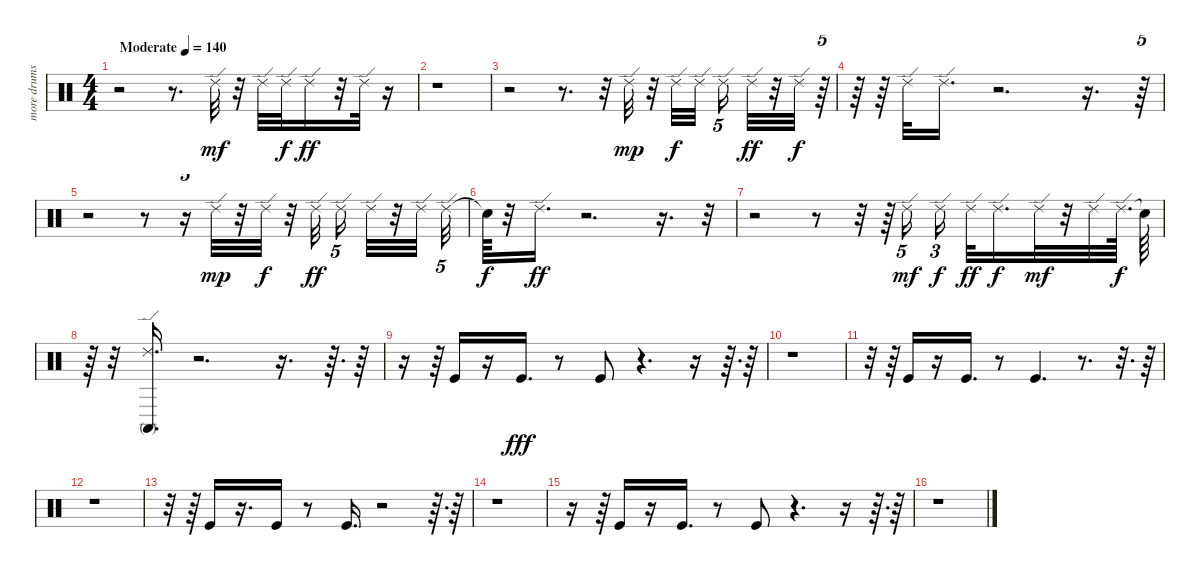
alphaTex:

\track ("more drums" "more drums") {instrument percussion}
\staff {score}
\articulation defaults
\ts (4 4)
\tempo (140 "Moderate")
\clef neutral
\ks c
r.2{dy mf} r.8{d} "Ride (edge) 2".32 r.32 "Ride (edge) 2".32 "Ride (edge) 2".32{dy f} "Ride (edge) 2".16{dy ff} r.32 "Ride (edge) 2".32 r.16 |
r.1 |
r.2 r.8{d} r.32 "Ride (edge) 2".32{dy mp} r.32 "Ride (edge) 2".32{dy f} "Ride (edge) 2".32 "Ride (edge) 2".16{tu (5 4)} "Ride (edge) 2".32{dy ff} r.32 "Ride (edge) 2".32{dy f} r.64{tu (5 4)} |
r.64 r.64 "Ride (edge) 2".32 "Ride (edge) 2".16{d} r.2{d} r.16{d} r.64{tu (5 4)} |
r.2 r.8 r.16{tu (5 4)} "Ride (edge) 2".32{dy mp} r.32 "Ride (edge) 2".32{dy f} r.32 "Ride (edge) 2".32{dy ff} "Ride (edge) 2".16{tu (5 4)} "Ride (edge) 2".32 r.32 "Ride (edge) 2".32 "Ride (edge) 2".32{tu (5 4)} |
"Snare (hit)"{t}.64{dy f} r.32 "Ride (edge) 2".16{d dy ff} r.2{d} r.16{d} r.32{tu (5 4)} |
r.2 r.8 r.32 r.64 "Ride (edge) 2".16{tu (5 4) dy mf} "Ride (edge) 2".16{tu (3 2) dy f} "Ride (edge) 2".32{dy ff} "Ride (edge) 2".16{d dy f} "Ride (edge) 2".32{dy mf} r.32 "Ride (edge) 2".32 "Ride (edge) 2".64{d dy f} "Snare (hit)"{t}.64 |
r.64 r.32 ("Conga high (mute)" "Ride (edge) 2").16{d} r.2{d} r.16{d} r.64{d} r.64 |
r.16 r.64 "Kick (hit)".16 r.16 "Kick (hit)".16{d dy fff} r.8 "Kick (hit)".8 r.4{d} r.16 r.64{d} r.64 |
r.1 |
r.32 r.64 "Kick (hit)".16 r.16 "Kick (hit)".16{d} r.8 "Kick (hit)".4{d} r.8{d} r.32{d} r.64 |
r.1 |
r.32 r.64 "Kick (hit)".16 r.16{d} "Kick (hit)".16 r.8 "Kick (hit)".16{d} r.2 r.64{d} r.64 |
r.1 |
r.16 r.64 "Kick (hit)".16 r.16 "Kick (hit)".16{d} r.8 "Kick (hit)".8 r.4{d} r.16 r.64{d} r.64 |
r.1
